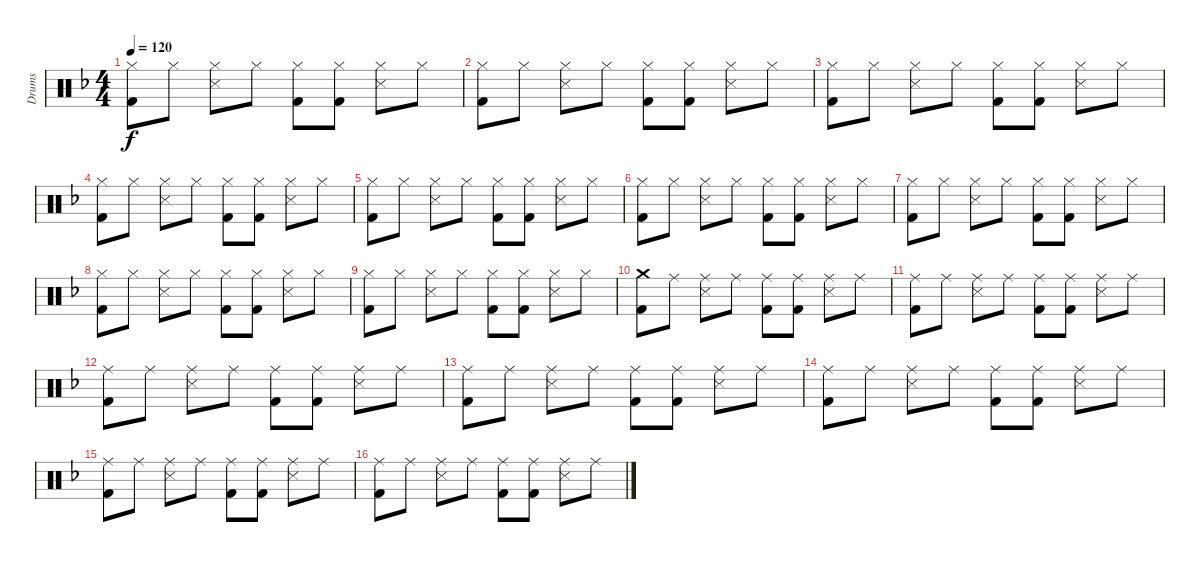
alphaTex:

\track ("Drums" "Drums") {instrument percussion}
\staff {score}
\articulation defaults
\ts (4 4)
\tempo 120
\clef neutral
\ks f
("Hi-Hat (closed)" "Kick (hit) 2").8{dy f} "Hi-Hat (closed)".8 ("Hi-Hat (closed)" "Snare (side stick) 3").8 "Hi-Hat (closed)".8 ("Hi-Hat (closed)" "Kick (hit) 2").8 ("Hi-Hat (closed)" "Kick (hit) 2").8 ("Hi-Hat (closed)" "Snare (side stick) 3").8 "Hi-Hat (closed)".8 |
("Hi-Hat (closed)" "Kick (hit) 2").8 "Hi-Hat (closed)".8 ("Hi-Hat (closed)" "Snare (side stick) 3").8 "Hi-Hat (closed)".8 ("Hi-Hat (closed)" "Kick (hit) 2").8 ("Hi-Hat (closed)" "Kick (hit) 2").8 ("Hi-Hat (closed)" "Snare (side stick) 3").8 "Hi-Hat (closed)".8 |
("Hi-Hat (closed)" "Kick (hit) 2").8 "Hi-Hat (closed)".8 ("Hi-Hat (closed)" "Snare (side stick) 3").8 "Hi-Hat (closed)".8 ("Hi-Hat (closed)" "Kick (hit) 2").8 ("Hi-Hat (closed)" "Kick (hit) 2").8 ("Hi-Hat (closed)" "Snare (side stick) 3").8 "Hi-Hat (closed)".8 |
("Hi-Hat (closed)" "Kick (hit) 2").8 "Hi-Hat (closed)".8 ("Hi-Hat (closed)" "Snare (side stick) 3").8 "Hi-Hat (closed)".8 ("Hi-Hat (closed)" "Kick (hit) 2").8 ("Hi-Hat (closed)" "Kick (hit) 2").8 ("Hi-Hat (closed)" "Snare (side stick) 3").8 "Hi-Hat (closed)".8 |
("Hi-Hat (closed)" "Kick (hit) 2").8 "Hi-Hat (closed)".8 ("Hi-Hat (closed)" "Snare (side stick) 3").8 "Hi-Hat (closed)".8 ("Hi-Hat (closed)" "Kick (hit) 2").8 ("Hi-Hat (closed)" "Kick (hit) 2").8 ("Hi-Hat (closed)" "Snare (side stick) 3").8 "Hi-Hat (closed)".8 |
("Hi-Hat (closed)" "Kick (hit) 2").8 "Hi-Hat (closed)".8 ("Hi-Hat (closed)" "Snare (side stick) 3").8 "Hi-Hat (closed)".8 ("Hi-Hat (closed)" "Kick (hit) 2").8 ("Hi-Hat (closed)" "Kick (hit) 2").8 ("Hi-Hat (closed)" "Snare (side stick) 3").8 "Hi-Hat (closed)".8 |
("Hi-Hat (closed)" "Kick (hit) 2").8 "Hi-Hat (closed)".8 ("Hi-Hat (closed)" "Snare (side stick) 3").8 "Hi-Hat (closed)".8 ("Hi-Hat (closed)" "Kick (hit) 2").8 ("Hi-Hat (closed)" "Kick (hit) 2").8 ("Hi-Hat (closed)" "Snare (side stick) 3").8 "Hi-Hat (closed)".8 |
("Hi-Hat (closed)" "Kick (hit) 2").8 "Hi-Hat (closed)".8 ("Hi-Hat (closed)" "Snare (side stick) 3").8 "Hi-Hat (closed)".8 ("Hi-Hat (closed)" "Kick (hit) 2").8 ("Hi-Hat (closed)" "Kick (hit) 2").8 ("Hi-Hat (closed)" "Snare (side stick) 3").8 "Hi-Hat (closed)".8 |
("Hi-Hat (closed)" "Kick (hit) 2").8 "Hi-Hat (closed)".8 ("Hi-Hat (closed)" "Snare (side stick) 3").8 "Hi-Hat (closed)".8 ("Hi-Hat (closed)" "Kick (hit) 2").8 ("Hi-Hat (closed)" "Kick (hit) 2").8 ("Hi-Hat (closed)" "Snare (side stick) 3").8 "Hi-Hat (closed)".8 |
("Crash medium (hit)" "Kick (hit) 2").8 "Ride (middle)".8 ("Ride (middle)" "Snare (side stick) 3").8 "Ride (middle)".8 ("Ride (middle)" "Kick (hit) 2").8 ("Ride (middle)" "Kick (hit) 2").8 ("Ride (middle)" "Snare (side stick) 3").8 "Ride (middle)".8 |
("Ride (middle)" "Kick (hit) 2").8 "Ride (middle)".8 ("Ride (middle)" "Snare (side stick) 3").8 "Ride (middle)".8 ("Ride (middle)" "Kick (hit) 2").8 ("Ride (middle)" "Kick (hit) 2").8 ("Ride (middle)" "Snare (side stick) 3").8 "Ride (middle)".8 |
("Ride (middle)" "Kick (hit) 2").8 "Ride (middle)".8 ("Ride (middle)" "Snare (side stick) 3").8 "Ride (middle)".8 ("Ride (middle)" "Kick (hit) 2").8 ("Ride (middle)" "Kick (hit) 2").8 ("Ride (middle)" "Snare (side stick) 3").8 "Ride (middle)".8 |
("Ride (middle)" "Kick (hit) 2").8 "Ride (middle)".8 ("Ride (middle)" "Snare (side stick) 3").8 "Ride (middle)".8 ("Ride (middle)" "Kick (hit) 2").8 ("Ride (middle)" "Kick (hit) 2").8 ("Ride (middle)" "Snare (side stick) 3").8 "Ride (middle)".8 |
("Ride (middle)" "Kick (hit) 2").8 "Ride (middle)".8 ("Ride (middle)" "Snare (side stick) 3").8 "Ride (middle)".8 ("Ride (middle)" "Kick (hit) 2").8 ("Ride (middle)" "Kick (hit) 2").8 ("Ride (middle)" "Snare (side stick) 3").8 "Ride (middle)".8 |
("Ride (middle)" "Kick (hit) 2").8 "Ride (middle)".8 ("Ride (middle)" "Snare (side stick) 3").8 "Ride (middle)".8 ("Ride (middle)" "Kick (hit) 2").8 ("Ride (middle)" "Kick (hit) 2").8 ("Ride (middle)" "Snare (side stick) 3").8 "Ride (middle)".8 |
("Ride (middle)" "Kick (hit) 2").8 "Ride (middle)".8 ("Ride (middle)" "Snare (side stick) 3").8 "Ride (middle)".8 ("Ride (middle)" "Kick (hit) 2").8 ("Ride (middle)" "Kick (hit) 2").8 ("Ride (middle)" "Snare (side stick) 3").8 "Ride (middle)".8
